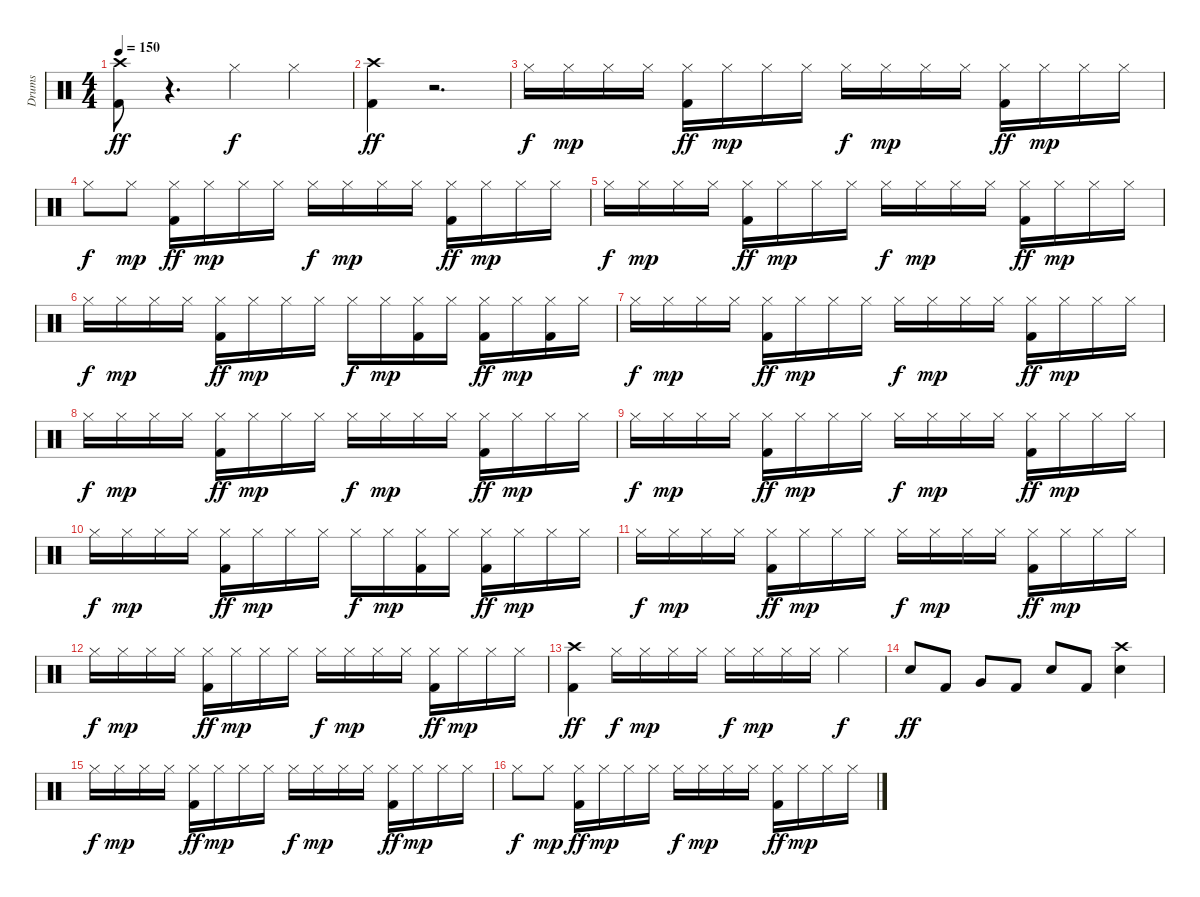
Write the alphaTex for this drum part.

\track ("Drums" "Drums") {instrument percussion}
\staff {score}
\articulation defaults
\ts (4 4)
\tempo 150
\clef neutral
\ks c
("Kick (hit) 2" "Crash high (hit)").8{dy ff} r.4{d} "Hi-Hat (closed)".4{dy f} "Hi-Hat (closed)".4 |
("Crash high (hit)" "Kick (hit) 2").4{dy ff} r.2{d} |
"Hi-Hat (closed)".16{dy f} "Hi-Hat (closed)".16{dy mp} "Hi-Hat (closed)".16 "Hi-Hat (closed)".16 ("Kick (hit) 2" "Hi-Hat (closed)").16{dy ff} "Hi-Hat (closed)".16{dy mp} "Hi-Hat (closed)".16 "Hi-Hat (closed)".16 "Hi-Hat (closed)".16{dy f} "Hi-Hat (closed)".16{dy mp} "Hi-Hat (closed)".16 "Hi-Hat (closed)".16 ("Kick (hit) 2" "Hi-Hat (closed)").16{dy ff} "Hi-Hat (closed)".16{dy mp} "Hi-Hat (closed)".16 "Hi-Hat (closed)".16 |
"Hi-Hat (closed)".8{dy f} "Hi-Hat (closed)".8{dy mp} ("Kick (hit) 2" "Hi-Hat (closed)").16{dy ff} "Hi-Hat (closed)".16{dy mp} "Hi-Hat (closed)".16 "Hi-Hat (closed)".16 "Hi-Hat (closed)".16{dy f} "Hi-Hat (closed)".16{dy mp} "Hi-Hat (closed)".16 "Hi-Hat (closed)".16 ("Kick (hit) 2" "Hi-Hat (closed)").16{dy ff} "Hi-Hat (closed)".16{dy mp} "Hi-Hat (closed)".16 "Hi-Hat (closed)".16 |
"Hi-Hat (closed)".16{dy f} "Hi-Hat (closed)".16{dy mp} "Hi-Hat (closed)".16 "Hi-Hat (closed)".16 ("Kick (hit) 2" "Hi-Hat (closed)").16{dy ff} "Hi-Hat (closed)".16{dy mp} "Hi-Hat (closed)".16 "Hi-Hat (closed)".16 "Hi-Hat (closed)".16{dy f} "Hi-Hat (closed)".16{dy mp} "Hi-Hat (closed)".16 "Hi-Hat (closed)".16 ("Kick (hit) 2" "Hi-Hat (closed)").16{dy ff} "Hi-Hat (closed)".16{dy mp} "Hi-Hat (closed)".16 "Hi-Hat (closed)".16 |
"Hi-Hat (closed)".16{dy f} "Hi-Hat (closed)".16{dy mp} "Hi-Hat (closed)".16 "Hi-Hat (closed)".16 ("Kick (hit) 2" "Hi-Hat (closed)").16{dy ff} "Hi-Hat (closed)".16{dy mp} "Hi-Hat (closed)".16 "Hi-Hat (closed)".16 "Hi-Hat (closed)".16{dy f} "Hi-Hat (closed)".16{dy mp} ("Kick (hit) 2" "Hi-Hat (closed)").16 "Hi-Hat (closed)".16 ("Kick (hit) 2" "Hi-Hat (closed)").16{dy ff} "Hi-Hat (closed)".16{dy mp} ("Kick (hit) 2" "Hi-Hat (closed)").16 "Hi-Hat (closed)".16 |
"Hi-Hat (closed)".16{dy f} "Hi-Hat (closed)".16{dy mp} "Hi-Hat (closed)".16 "Hi-Hat (closed)".16 ("Kick (hit) 2" "Hi-Hat (closed)").16{dy ff} "Hi-Hat (closed)".16{dy mp} "Hi-Hat (closed)".16 "Hi-Hat (closed)".16 "Hi-Hat (closed)".16{dy f} "Hi-Hat (closed)".16{dy mp} "Hi-Hat (closed)".16 "Hi-Hat (closed)".16 ("Kick (hit) 2" "Hi-Hat (closed)").16{dy ff} "Hi-Hat (closed)".16{dy mp} "Hi-Hat (closed)".16 "Hi-Hat (closed)".16 |
"Hi-Hat (closed)".16{dy f} "Hi-Hat (closed)".16{dy mp} "Hi-Hat (closed)".16 "Hi-Hat (closed)".16 ("Kick (hit) 2" "Hi-Hat (closed)").16{dy ff} "Hi-Hat (closed)".16{dy mp} "Hi-Hat (closed)".16 "Hi-Hat (closed)".16 "Hi-Hat (closed)".16{dy f} "Hi-Hat (closed)".16{dy mp} "Hi-Hat (closed)".16 "Hi-Hat (closed)".16 ("Kick (hit) 2" "Hi-Hat (closed)").16{dy ff} "Hi-Hat (closed)".16{dy mp} "Hi-Hat (closed)".16 "Hi-Hat (closed)".16 |
"Hi-Hat (closed)".16{dy f} "Hi-Hat (closed)".16{dy mp} "Hi-Hat (closed)".16 "Hi-Hat (closed)".16 ("Kick (hit) 2" "Hi-Hat (closed)").16{dy ff} "Hi-Hat (closed)".16{dy mp} "Hi-Hat (closed)".16 "Hi-Hat (closed)".16 "Hi-Hat (closed)".16{dy f} "Hi-Hat (closed)".16{dy mp} "Hi-Hat (closed)".16 "Hi-Hat (closed)".16 ("Kick (hit) 2" "Hi-Hat (closed)").16{dy ff} "Hi-Hat (closed)".16{dy mp} "Hi-Hat (closed)".16 "Hi-Hat (closed)".16 |
"Hi-Hat (closed)".16{dy f} "Hi-Hat (closed)".16{dy mp} "Hi-Hat (closed)".16 "Hi-Hat (closed)".16 ("Kick (hit) 2" "Hi-Hat (closed)").16{dy ff} "Hi-Hat (closed)".16{dy mp} "Hi-Hat (closed)".16 "Hi-Hat (closed)".16 "Hi-Hat (closed)".16{dy f} "Hi-Hat (closed)".16{dy mp} ("Kick (hit) 2" "Hi-Hat (closed)").16 "Hi-Hat (closed)".16 ("Kick (hit) 2" "Hi-Hat (closed)").16{dy ff} "Hi-Hat (closed)".16{dy mp} "Hi-Hat (closed)".16 "Hi-Hat (closed)".16 |
"Hi-Hat (closed)".16{dy f} "Hi-Hat (closed)".16{dy mp} "Hi-Hat (closed)".16 "Hi-Hat (closed)".16 ("Kick (hit) 2" "Hi-Hat (closed)").16{dy ff} "Hi-Hat (closed)".16{dy mp} "Hi-Hat (closed)".16 "Hi-Hat (closed)".16 "Hi-Hat (closed)".16{dy f} "Hi-Hat (closed)".16{dy mp} "Hi-Hat (closed)".16 "Hi-Hat (closed)".16 ("Kick (hit) 2" "Hi-Hat (closed)").16{dy ff} "Hi-Hat (closed)".16{dy mp} "Hi-Hat (closed)".16 "Hi-Hat (closed)".16 |
"Hi-Hat (closed)".16{dy f} "Hi-Hat (closed)".16{dy mp} "Hi-Hat (closed)".16 "Hi-Hat (closed)".16 ("Kick (hit) 2" "Hi-Hat (closed)").16{dy ff} "Hi-Hat (closed)".16{dy mp} "Hi-Hat (closed)".16 "Hi-Hat (closed)".16 "Hi-Hat (closed)".16{dy f} "Hi-Hat (closed)".16{dy mp} "Hi-Hat (closed)".16 "Hi-Hat (closed)".16 ("Kick (hit) 2" "Hi-Hat (closed)").16{dy ff} "Hi-Hat (closed)".16{dy mp} "Hi-Hat (closed)".16 "Hi-Hat (closed)".16 |
("Crash high (hit)" "Kick (hit) 2").4{dy ff} "Hi-Hat (closed)".16{dy f} "Hi-Hat (closed)".16{dy mp} "Hi-Hat (closed)".16 "Hi-Hat (closed)".16 "Hi-Hat (closed)".16{dy f} "Hi-Hat (closed)".16{dy mp} "Hi-Hat (closed)".16 "Hi-Hat (closed)".16 "Hi-Hat (closed)".4{dy f} |
"Snare (hit) 2".8{dy ff} "Kick (hit) 2".8 "Very Low Tom (hit)".8 "Kick (hit) 2".8 "Snare (hit) 2".8 "Kick (hit) 2".8 ("Crash high (hit)" "Snare (hit) 2").4 |
"Hi-Hat (closed)".16{dy f} "Hi-Hat (closed)".16{dy mp} "Hi-Hat (closed)".16 "Hi-Hat (closed)".16 ("Kick (hit) 2" "Hi-Hat (closed)").16{dy ff} "Hi-Hat (closed)".16{dy mp} "Hi-Hat (closed)".16 "Hi-Hat (closed)".16 "Hi-Hat (closed)".16{dy f} "Hi-Hat (closed)".16{dy mp} "Hi-Hat (closed)".16 "Hi-Hat (closed)".16 ("Kick (hit) 2" "Hi-Hat (closed)").16{dy ff} "Hi-Hat (closed)".16{dy mp} "Hi-Hat (closed)".16 "Hi-Hat (closed)".16 |
"Hi-Hat (closed)".8{dy f} "Hi-Hat (closed)".8{dy mp} ("Kick (hit) 2" "Hi-Hat (closed)").16{dy ff} "Hi-Hat (closed)".16{dy mp} "Hi-Hat (closed)".16 "Hi-Hat (closed)".16 "Hi-Hat (closed)".16{dy f} "Hi-Hat (closed)".16{dy mp} "Hi-Hat (closed)".16 "Hi-Hat (closed)".16 ("Kick (hit) 2" "Hi-Hat (closed)").16{dy ff} "Hi-Hat (closed)".16{dy mp} "Hi-Hat (closed)".16 "Hi-Hat (closed)".16
